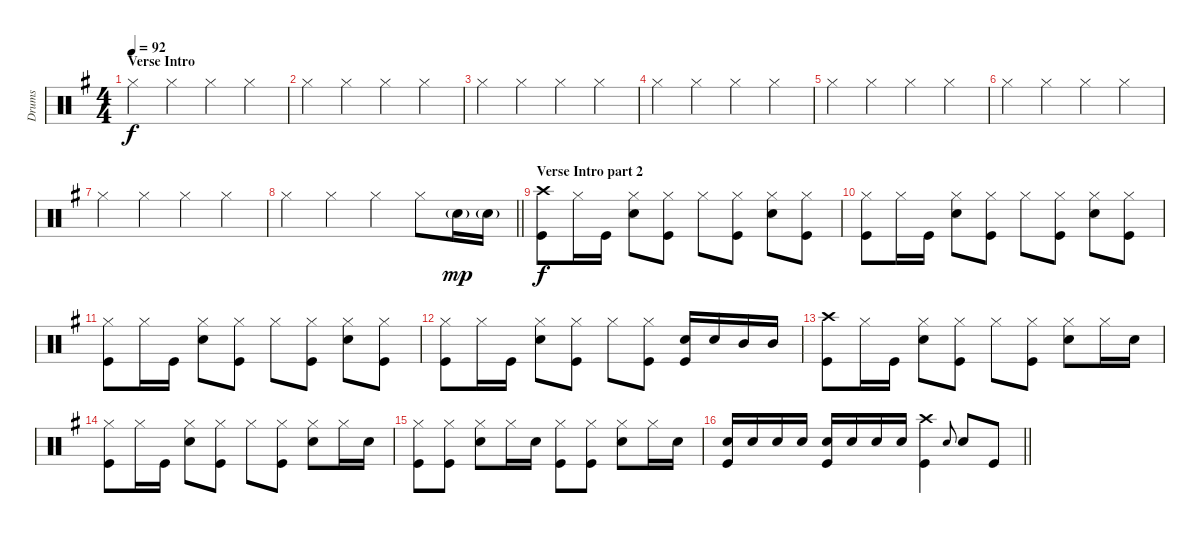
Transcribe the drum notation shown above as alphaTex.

\track ("Drums" "Drums") {instrument percussion}
\staff {score}
\articulation defaults
\ts (4 4)
\section ("" "Verse Intro")
\tempo 92
\clef neutral
\ks eminor "Hi-Hat (closed)".4{dy f} "Hi-Hat (closed)".4 "Hi-Hat (closed)".4 "Hi-Hat (closed)".4
|
"Hi-Hat (closed)".4 "Hi-Hat (closed)".4 "Hi-Hat (closed)".4 "Hi-Hat (closed)".4 |
"Hi-Hat (closed)".4 "Hi-Hat (closed)".4 "Hi-Hat (closed)".4 "Hi-Hat (closed)".4 |
"Hi-Hat (closed)".4 "Hi-Hat (closed)".4 "Hi-Hat (closed)".4 "Hi-Hat (closed)".4 |
"Hi-Hat (closed)".4 "Hi-Hat (closed)".4 "Hi-Hat (closed)".4 "Hi-Hat (closed)".4 |
"Hi-Hat (closed)".4 "Hi-Hat (closed)".4 "Hi-Hat (closed)".4 "Hi-Hat (closed)".4 |
"Hi-Hat (closed)".4 "Hi-Hat (closed)".4 "Hi-Hat (closed)".4 "Hi-Hat (closed)".4 |
\barLineRight lightlight "Hi-Hat (closed)".4 "Hi-Hat (closed)".4 "Hi-Hat (closed)".4 "Hi-Hat (closed)".8 "Snare (hit) 2"{g}.16{dy mp} "Snare (hit) 2"{g}.16
|
\section ("" "Verse Intro part 2")
("Kick (hit)" "Crash high (hit)").8{dy f} "Hi-Hat (closed)".16 "Kick (hit)".16 ("Snare (hit) 2" "Hi-Hat (closed)").8 ("Kick (hit)" "Hi-Hat (closed)").8 "Hi-Hat (closed)".8 ("Kick (hit)" "Hi-Hat (closed)").8 ("Snare (hit) 2" "Hi-Hat (closed)").8 ("Kick (hit)" "Hi-Hat (closed)").8 |
("Kick (hit)" "Hi-Hat (closed)").8 "Hi-Hat (closed)".16 "Kick (hit)".16 ("Snare (hit) 2" "Hi-Hat (closed)").8 ("Kick (hit)" "Hi-Hat (closed)").8 "Hi-Hat (closed)".8 ("Kick (hit)" "Hi-Hat (closed)").8 ("Snare (hit) 2" "Hi-Hat (closed)").8 ("Kick (hit)" "Hi-Hat (closed)").8 |
("Kick (hit)" "Hi-Hat (closed)").8 "Hi-Hat (closed)".16 "Kick (hit)".16 ("Snare (hit) 2" "Hi-Hat (closed)").8 ("Kick (hit)" "Hi-Hat (closed)").8 "Hi-Hat (closed)".8 ("Kick (hit)" "Hi-Hat (closed)").8 ("Snare (hit) 2" "Hi-Hat (closed)").8 ("Kick (hit)" "Hi-Hat (closed)").8 |
("Kick (hit)" "Hi-Hat (closed)").8 "Hi-Hat (closed)".16 "Kick (hit)".16 ("Snare (hit) 2" "Hi-Hat (closed)").8 ("Kick (hit)" "Hi-Hat (closed)").8 "Hi-Hat (closed)".8 ("Kick (hit)" "Hi-Hat (closed)").8 ("Kick (hit)" "Snare (hit) 2").16 "Snare (hit) 2".16 "Mid Tom (hit)".16 "Mid Tom (hit)".16 |
("Kick (hit)" "Crash high (hit)").8 "Hi-Hat (closed)".16 "Kick (hit)".16 ("Snare (hit) 2" "Hi-Hat (closed)").8 ("Kick (hit)" "Hi-Hat (closed)").8 "Hi-Hat (closed)".8 ("Kick (hit)" "Hi-Hat (closed)").8 ("Snare (hit) 2" "Hi-Hat (closed)").8 "Hi-Hat (closed)".16 "Snare (hit) 2".16 |
("Kick (hit)" "Hi-Hat (closed)").8 "Hi-Hat (closed)".16 "Kick (hit)".16 ("Snare (hit) 2" "Hi-Hat (closed)").8 ("Kick (hit)" "Hi-Hat (closed)").8 "Hi-Hat (closed)".8 ("Kick (hit)" "Hi-Hat (closed)").8 ("Snare (hit) 2" "Hi-Hat (closed)").8 "Hi-Hat (closed)".16 "Snare (hit) 2".16 |
("Kick (hit)" "Hi-Hat (closed)").8 ("Kick (hit)" "Hi-Hat (closed)").8 ("Snare (hit) 2" "Hi-Hat (closed)").8 "Hi-Hat (closed)".16 "Snare (hit) 2".16 ("Kick (hit)" "Hi-Hat (closed)").8 ("Kick (hit)" "Hi-Hat (closed)").8 ("Snare (hit) 2" "Hi-Hat (closed)").8 "Hi-Hat (closed)".16 "Snare (hit) 2".16 |
\barLineRight lightlight
("Snare (hit) 2" "Kick (hit)").16 "Snare (hit) 2".16 "Snare (hit) 2".16 "Snare (hit) 2".16 ("Snare (hit) 2" "Kick (hit)").16 "Snare (hit) 2".16 "Snare (hit) 2".16 "Snare (hit) 2".16 ("Crash high (hit)" "Kick (hit)").4 "Snare (hit) 2".8{gr onbeat} "Snare (hit) 2".8 "Kick (hit)".8
